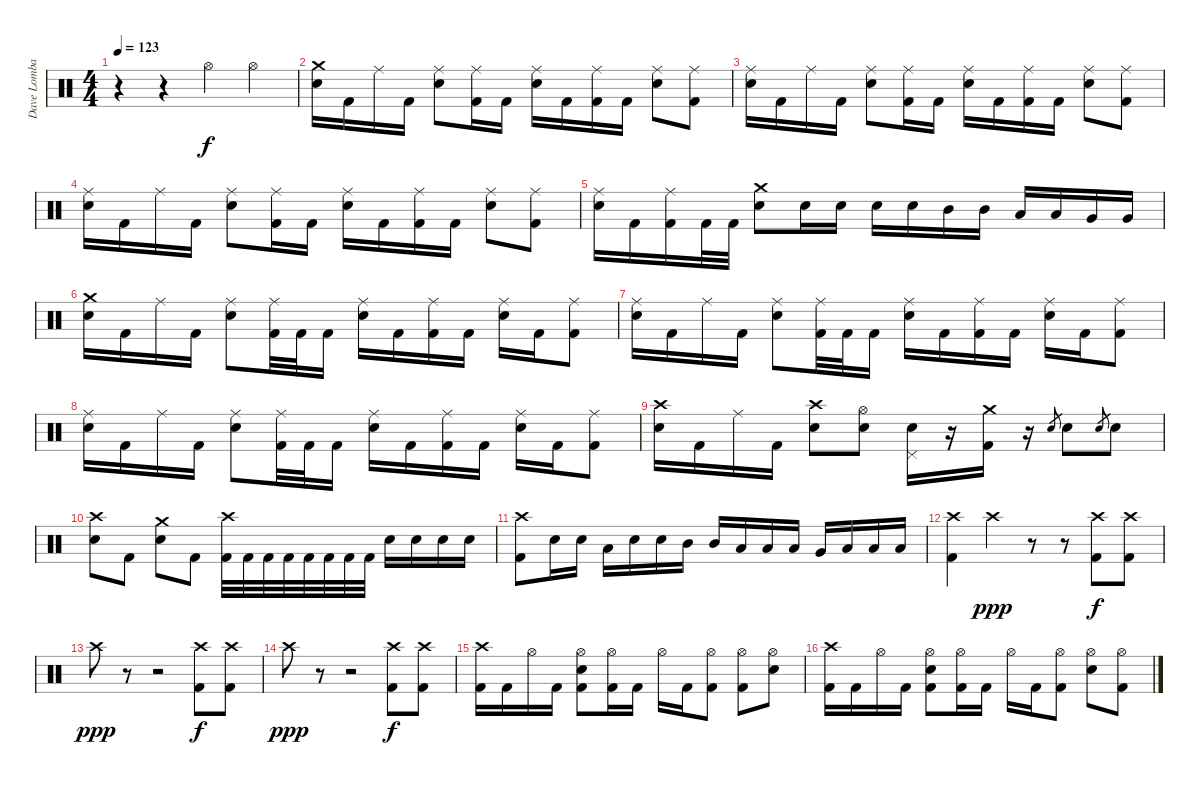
\track ("Dave Lombardo" "Dave Lomba") {instrument percussion}
\staff {score}
\articulation defaults
\ts (4 4)
\tempo 123
\clef neutral
\ks c
r.4{dy f} r.4 "Hi-Hat (open)".4 "Hi-Hat (open)".4 |
("Electric Snare (hit)" "Crash medium (hit)").16 "Kick (hit) 2".16 "Ride (middle)".16 "Kick (hit) 2".16 ("Electric Snare (hit)" "Ride (middle)").8 ("Kick (hit) 2" "Ride (middle)").16 "Kick (hit) 2".16 ("Electric Snare (hit)" "Ride (middle)").16 "Kick (hit) 2".16 ("Kick (hit) 2" "Ride (middle)").16 "Kick (hit) 2".16 ("Electric Snare (hit)" "Ride (middle)").8 ("Kick (hit) 2" "Ride (middle)").8 |
("Electric Snare (hit)" "Ride (middle)").16 "Kick (hit) 2".16 "Ride (middle)".16 "Kick (hit) 2".16 ("Electric Snare (hit)" "Ride (middle)").8 ("Kick (hit) 2" "Ride (middle)").16 "Kick (hit) 2".16 ("Electric Snare (hit)" "Ride (middle)").16 "Kick (hit) 2".16 ("Kick (hit) 2" "Ride (middle)").16 "Kick (hit) 2".16 ("Electric Snare (hit)" "Ride (middle)").8 ("Kick (hit) 2" "Ride (middle)").8 |
("Electric Snare (hit)" "Ride (middle)").16 "Kick (hit) 2".16 "Ride (middle)".16 "Kick (hit) 2".16 ("Electric Snare (hit)" "Ride (middle)").8 ("Kick (hit) 2" "Ride (middle)").16 "Kick (hit) 2".16 ("Electric Snare (hit)" "Ride (middle)").16 "Kick (hit) 2".16 ("Kick (hit) 2" "Ride (middle)").16 "Kick (hit) 2".16 ("Electric Snare (hit)" "Ride (middle)").8 ("Kick (hit) 2" "Ride (middle)").8 |
("Electric Snare (hit)" "Ride (middle)").16 "Kick (hit) 2".16 ("Kick (hit) 2" "Ride (middle)").16 "Kick (hit) 2".32 "Kick (hit) 2".32 ("Electric Snare (hit)" "Crash medium (hit)").8 "Electric Snare (hit)".16 "Electric Snare (hit)".16 "Electric Snare (hit)".16 "Electric Snare (hit)".16 "Mid Tom (hit)".16 "Mid Tom (hit)".16 "Low Tom (hit)".16 "Low Tom (hit)".16 "Very Low Tom (hit)".16 "Very Low Tom (hit)".16 |
("Electric Snare (hit)" "Crash medium (hit)").16 "Kick (hit) 2".16 "Ride (middle)".16 "Kick (hit) 2".16 ("Electric Snare (hit)" "Ride (middle)").8 ("Kick (hit) 2" "Ride (middle)").32 "Kick (hit) 2".32 "Kick (hit) 2".16 ("Electric Snare (hit)" "Ride (middle)").16 "Kick (hit) 2".16 ("Kick (hit) 2" "Ride (middle)").16 "Kick (hit) 2".16 ("Electric Snare (hit)" "Ride (middle)").16 "Kick (hit) 2".16 ("Kick (hit) 2" "Ride (middle)").8 |
("Electric Snare (hit)" "Ride (middle)").16 "Kick (hit) 2".16 "Ride (middle)".16 "Kick (hit) 2".16 ("Electric Snare (hit)" "Ride (middle)").8 ("Kick (hit) 2" "Ride (middle)").32 "Kick (hit) 2".32 "Kick (hit) 2".16 ("Electric Snare (hit)" "Ride (middle)").16 "Kick (hit) 2".16 ("Kick (hit) 2" "Ride (middle)").16 "Kick (hit) 2".16 ("Electric Snare (hit)" "Ride (middle)").16 "Kick (hit) 2".16 ("Kick (hit) 2" "Ride (middle)").8 |
("Electric Snare (hit)" "Ride (middle)").16 "Kick (hit) 2".16 "Ride (middle)".16 "Kick (hit) 2".16 ("Electric Snare (hit)" "Ride (middle)").8 ("Kick (hit) 2" "Ride (middle)").32 "Kick (hit) 2".32 "Kick (hit) 2".16 ("Electric Snare (hit)" "Ride (middle)").16 "Kick (hit) 2".16 ("Kick (hit) 2" "Ride (middle)").16 "Kick (hit) 2".16 ("Electric Snare (hit)" "Ride (middle)").16 "Kick (hit) 2".16 ("Kick (hit) 2" "Ride (middle)").8 |
("Electric Snare (hit)" "Crash high (hit)").16 "Kick (hit) 2".16 "Ride (middle)".16 "Kick (hit) 2".16 ("Electric Snare (hit)" "Crash high (hit)").8 ("Electric Snare (hit)" "Hi-Hat (open)").8 ("Electric Snare (hit)" "Pedal Hi-Hat (hit)").16 r.16 ("Kick (hit) 2" "Crash medium (hit)").16 r.16 "Electric Snare (hit)".8{gr} "Electric Snare (hit)".8 "Electric Snare (hit)".8{gr} "Electric Snare (hit)".8 |
("Electric Snare (hit)" "Crash high (hit)").8 "Kick (hit) 2".8 ("Electric Snare (hit)" "Crash medium (hit)").8 "Kick (hit) 2".8 ("Kick (hit) 2" "Crash high (hit)").32 "Kick (hit) 2".32 "Kick (hit) 2".32 "Kick (hit) 2".32 "Kick (hit) 2".32 "Kick (hit) 2".32 "Kick (hit) 2".32 "Kick (hit) 2".32 "Electric Snare (hit)".16 "Electric Snare (hit)".16 "Electric Snare (hit)".16 "Electric Snare (hit)".16 |
("Kick (hit) 2" "Crash high (hit)").8 "Electric Snare (hit)".16 "Electric Snare (hit)".16 "Low Tom (hit)".16 "Electric Snare (hit)".16 "Electric Snare (hit)".16 "Mid Tom (hit)".16 "Mid Tom (hit)".16 "Low Tom (hit)".16 "Low Tom (hit)".16 "Low Tom (hit)".16 "Very Low Tom (hit)".16 "Low Floor Tom (hit)".16 "Low Floor Tom (hit)".16 "Low Floor Tom (hit)".16 |
("Kick (hit) 2" "Crash high (hit)").4 "Crash high (hit)".4{dy ppp} r.8 r.8 ("Kick (hit) 2" "Crash high (hit)").8{dy f} ("Kick (hit) 2" "Crash high (hit)").8 |
"Crash high (hit)".8{dy ppp} r.8 r.2 ("Kick (hit) 2" "Crash high (hit)").8{dy f} ("Kick (hit) 2" "Crash high (hit)").8 |
"Crash high (hit)".8{dy ppp} r.8 r.2 ("Kick (hit) 2" "Crash high (hit)").8{dy f} ("Kick (hit) 2" "Crash high (hit)").8 |
("Crash high (hit)" "Kick (hit) 2").16 "Kick (hit) 2".16 "Hi-Hat (open)".16 "Kick (hit) 2".16 ("Hi-Hat (open)" "Electric Snare (hit)" "Kick (hit) 2").8 ("Hi-Hat (open)" "Kick (hit) 2").16 "Kick (hit) 2".16 "Hi-Hat (open)".16 "Kick (hit) 2".16 ("Hi-Hat (open)" "Kick (hit) 2").8 ("Hi-Hat (open)" "Kick (hit) 2").8 ("Hi-Hat (open)" "Electric Snare (hit)").8 |
("Crash high (hit)" "Kick (hit) 2").16 "Kick (hit) 2".16 "Hi-Hat (open)".16 "Kick (hit) 2".16 ("Hi-Hat (open)" "Electric Snare (hit)" "Kick (hit) 2").8 ("Hi-Hat (open)" "Kick (hit) 2").16 "Kick (hit) 2".16 "Hi-Hat (open)".16 "Kick (hit) 2".16 ("Hi-Hat (open)" "Kick (hit) 2").8 ("Hi-Hat (open)" "Electric Snare (hit)").8 ("Hi-Hat (open)" "Kick (hit) 2").8
